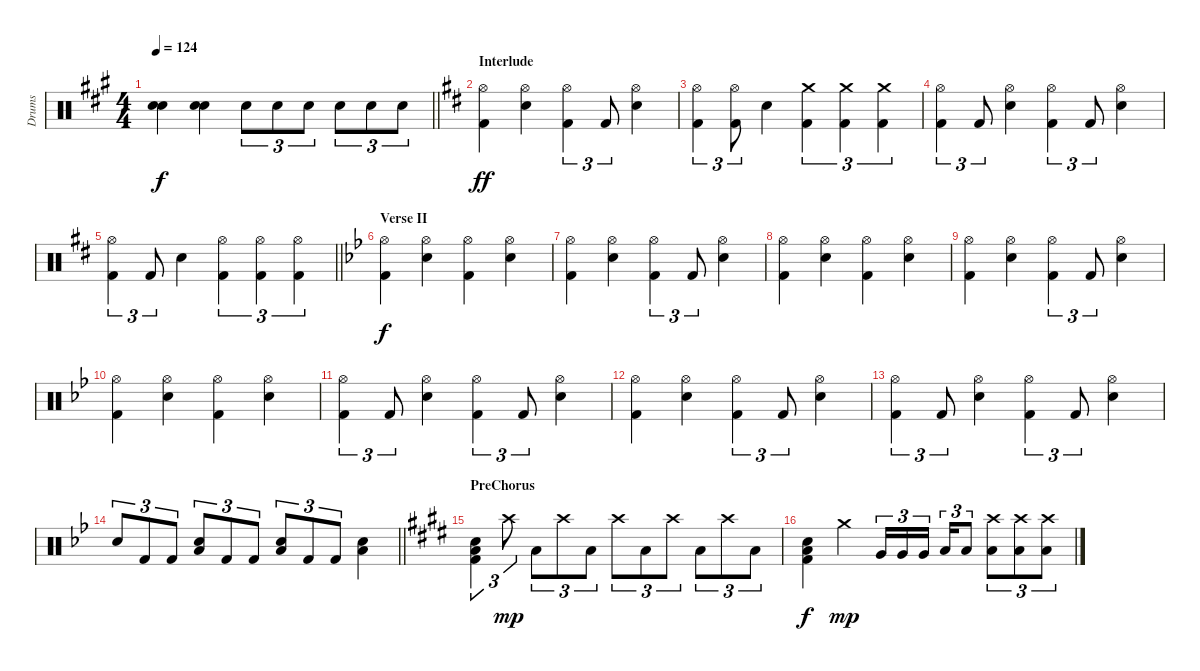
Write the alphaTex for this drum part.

\track ("Drums" "Drums") {instrument percussion}
\staff {score}
\articulation defaults
\ts (4 4)
\tempo 124
\clef neutral
\barLineRight lightlight
\ks a
("Electric Snare (hit)" "Snare (hit) 2").4{dy f} ("Electric Snare (hit)" "Snare (hit) 2").4 "Electric Snare (hit)".8{tu (3 2)} "Electric Snare (hit)".8{tu (3 2)} "Electric Snare (hit)".8{tu (3 2)} "Electric Snare (hit)".8{tu (3 2)} "Electric Snare (hit)".8{tu (3 2)} "Electric Snare (hit)".8{tu (3 2)} |
\section ("" "Interlude")
\ks d
("Hi-Hat (open)" "Kick (hit) 2").4{dy ff} ("Hi-Hat (open)" "Electric Snare (hit)").4 ("Hi-Hat (open)" "Kick (hit) 2").4{tu (3 2)} "Kick (hit) 2".8{tu (3 2)} ("Hi-Hat (open)" "Electric Snare (hit)").4 |
("Hi-Hat (open)" "Kick (hit) 2").4{tu (3 2)} ("Hi-Hat (open)" "Kick (hit) 2").8{tu (3 2)} "Electric Snare (hit)".4 ("Crash medium (hit)" "Kick (hit) 2").4{tu (3 2)} ("Crash medium (hit)" "Kick (hit) 2").4{tu (3 2)} ("Crash medium (hit)" "Kick (hit) 2").4{tu (3 2)} |
("Hi-Hat (open)" "Kick (hit) 2").4{tu (3 2)} "Kick (hit) 2".8{tu (3 2)} ("Hi-Hat (open)" "Electric Snare (hit)").4 ("Hi-Hat (open)" "Kick (hit) 2").4{tu (3 2)} "Kick (hit) 2".8{tu (3 2)} ("Hi-Hat (open)" "Electric Snare (hit)").4 |
\barLineRight lightlight
("Hi-Hat (open)" "Kick (hit) 2").4{tu (3 2)} "Kick (hit) 2".8{tu (3 2)} "Electric Snare (hit)".4 ("Hi-Hat (open)" "Kick (hit) 2").4{tu (3 2)} ("Hi-Hat (open)" "Kick (hit) 2").4{tu (3 2)} ("Hi-Hat (open)" "Kick (hit) 2").4{tu (3 2)} |
\section ("" "Verse II")
\ks bb
("Hi-Hat (open)" "Kick (hit) 2").4{dy f} ("Hi-Hat (open)" "Electric Snare (hit)").4 ("Hi-Hat (open)" "Kick (hit) 2").4 ("Hi-Hat (open)" "Electric Snare (hit)").4 |
("Hi-Hat (open)" "Kick (hit) 2").4 ("Hi-Hat (open)" "Electric Snare (hit)").4 ("Hi-Hat (open)" "Kick (hit) 2").4{tu (3 2)} "Kick (hit) 2".8{tu (3 2)} ("Hi-Hat (open)" "Electric Snare (hit)").4 |
("Hi-Hat (open)" "Kick (hit) 2").4 ("Hi-Hat (open)" "Electric Snare (hit)").4 ("Hi-Hat (open)" "Kick (hit) 2").4 ("Hi-Hat (open)" "Electric Snare (hit)").4 |
("Hi-Hat (open)" "Kick (hit) 2").4 ("Hi-Hat (open)" "Electric Snare (hit)").4 ("Hi-Hat (open)" "Kick (hit) 2").4{tu (3 2)} "Kick (hit) 2".8{tu (3 2)} ("Hi-Hat (open)" "Electric Snare (hit)").4 |
("Hi-Hat (open)" "Kick (hit) 2").4 ("Hi-Hat (open)" "Electric Snare (hit)").4 ("Hi-Hat (open)" "Kick (hit) 2").4 ("Hi-Hat (open)" "Electric Snare (hit)").4 |
("Hi-Hat (open)" "Kick (hit) 2").4{tu (3 2)} "Kick (hit) 2".8{tu (3 2)} ("Hi-Hat (open)" "Electric Snare (hit)").4 ("Hi-Hat (open)" "Kick (hit) 2").4{tu (3 2)} "Kick (hit) 2".8{tu (3 2)} ("Hi-Hat (open)" "Electric Snare (hit)").4 |
("Hi-Hat (open)" "Kick (hit) 2").4 ("Hi-Hat (open)" "Electric Snare (hit)").4 ("Hi-Hat (open)" "Kick (hit) 2").4{tu (3 2)} "Kick (hit) 2".8{tu (3 2)} ("Hi-Hat (open)" "Electric Snare (hit)").4 |
("Hi-Hat (open)" "Kick (hit) 2").4{tu (3 2)} "Kick (hit) 2".8{tu (3 2)} ("Hi-Hat (open)" "Electric Snare (hit)").4 ("Hi-Hat (open)" "Kick (hit) 2").4{tu (3 2)} "Kick (hit) 2".8{tu (3 2)} ("Hi-Hat (open)" "Electric Snare (hit)").4 |
\barLineRight lightlight "Electric Snare (hit)".8{tu (3 2)} "Kick (hit) 2".8{tu (3 2)} "Kick (hit) 2".8{tu (3 2)}
("Electric Snare (hit)" "Low Floor Tom (hit)").8{tu (3 2)} "Kick (hit) 2".8{tu (3 2)} "Kick (hit) 2".8{tu (3 2)} ("Electric Snare (hit)" "Low Floor Tom (hit)").8{tu (3 2)} "Kick (hit) 2".8{tu (3 2)} "Kick (hit) 2".8{tu (3 2)} ("Electric Snare (hit)" "Low Floor Tom (hit)").4 |
\section ("" "PreChorus")
\ks e
("Snare (hit) 2" "Low Floor Tom (hit)" "Kick (hit) 2").4{tu (3 2)} "Crash high (hit)".8{tu (3 2) dy mp} "Low Floor Tom (hit)".8{tu (3 2)} "Crash high (hit)".8{tu (3 2)} "Low Floor Tom (hit)".8{tu (3 2)} "Crash high (hit)".8{tu (3 2)} "Low Floor Tom (hit)".8{tu (3 2)} "Crash high (hit)".8{tu (3 2)} "Low Floor Tom (hit)".8{tu (3 2)} "Crash high (hit)".8{tu (3 2)} "Low Floor Tom (hit)".8{tu (3 2)} |
("Snare (hit) 2" "Low Floor Tom (hit)" "Kick (hit) 2").4{dy f} "Crash medium (hit)".4{dy mp} "Very Low Tom (hit)".16{tu (3 2)} "Very Low Tom (hit)".16{tu (3 2)} "Very Low Tom (hit)".16{tu (3 2) beam splitsecondary} "Low Floor Tom (hit)".16{tu (3 2)} "Low Floor Tom (hit)".8{tu (3 2)} ("Crash high (hit)" "Low Floor Tom (hit)").8{tu (3 2)} ("Crash high (hit)" "Low Floor Tom (hit)").8{tu (3 2)} ("Crash high (hit)" "Low Floor Tom (hit)").8{tu (3 2)}
